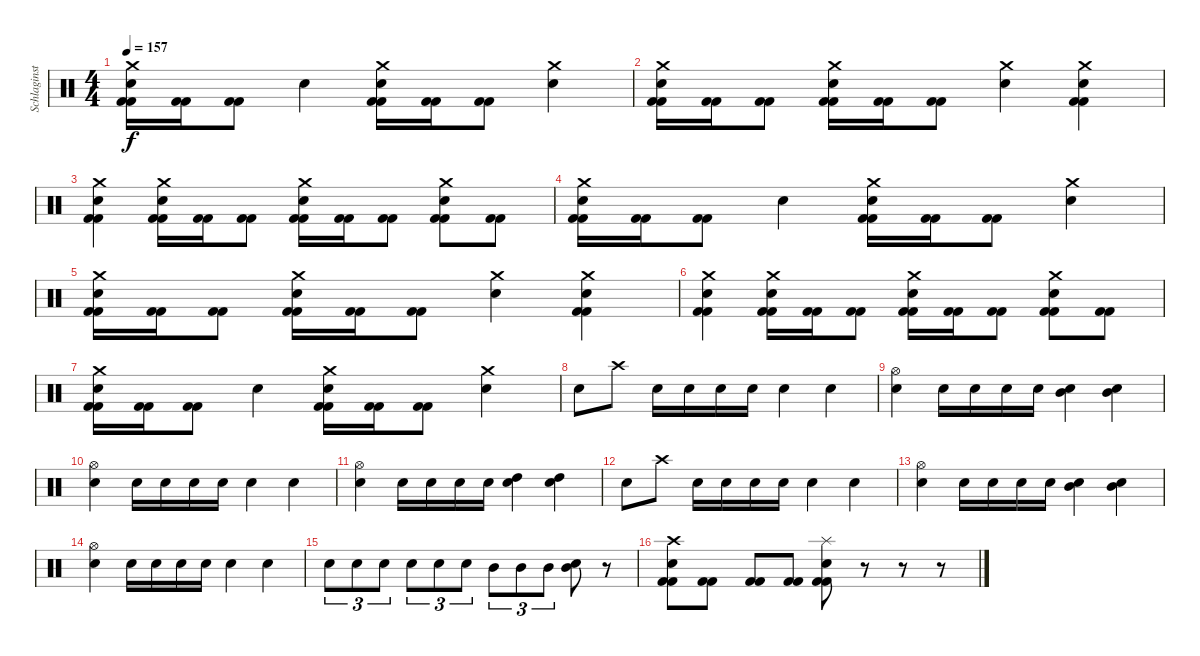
\track ("Schlaginstrumente - Auswahl" "Schlaginst") {instrument percussion}
\staff {score}
\articulation defaults
\ts (4 4)
\tempo 157
\clef neutral
\ks c
("Crash medium (hit)" "Electric Snare (hit)" "Kick (hit) 2" "Kick (hit) 2").16{dy f} ("Kick (hit) 2" "Kick (hit) 2").16 ("Kick (hit) 2" "Kick (hit) 2").8 "Electric Snare (hit)".4 ("Crash medium (hit)" "Electric Snare (hit)" "Kick (hit) 2" "Kick (hit) 2").16 ("Kick (hit) 2" "Kick (hit) 2").16 ("Kick (hit) 2" "Kick (hit) 2").8 ("Crash medium (hit)" "Electric Snare (hit)").4 |
("Crash medium (hit)" "Electric Snare (hit)" "Kick (hit) 2" "Kick (hit) 2").16 ("Kick (hit) 2" "Kick (hit) 2").16 ("Kick (hit) 2" "Kick (hit) 2").8 ("Crash medium (hit)" "Electric Snare (hit)" "Kick (hit) 2" "Kick (hit) 2").16 ("Kick (hit) 2" "Kick (hit) 2").16 ("Kick (hit) 2" "Kick (hit) 2").8 ("Crash medium (hit)" "Electric Snare (hit)").4 ("Crash medium (hit)" "Electric Snare (hit)" "Kick (hit) 2" "Kick (hit) 2").4 |
("Crash medium (hit)" "Electric Snare (hit)" "Kick (hit) 2" "Kick (hit) 2").4 ("Crash medium (hit)" "Electric Snare (hit)" "Kick (hit) 2" "Kick (hit) 2").16 ("Kick (hit) 2" "Kick (hit) 2").16 ("Kick (hit) 2" "Kick (hit) 2").8 ("Crash medium (hit)" "Electric Snare (hit)" "Kick (hit) 2" "Kick (hit) 2").16 ("Kick (hit) 2" "Kick (hit) 2").16 ("Kick (hit) 2" "Kick (hit) 2").8 ("Crash medium (hit)" "Electric Snare (hit)" "Kick (hit) 2" "Kick (hit) 2").8 ("Kick (hit) 2" "Kick (hit) 2").8 |
("Crash medium (hit)" "Electric Snare (hit)" "Kick (hit) 2" "Kick (hit) 2").16 ("Kick (hit) 2" "Kick (hit) 2").16 ("Kick (hit) 2" "Kick (hit) 2").8 "Electric Snare (hit)".4 ("Crash medium (hit)" "Electric Snare (hit)" "Kick (hit) 2" "Kick (hit) 2").16 ("Kick (hit) 2" "Kick (hit) 2").16 ("Kick (hit) 2" "Kick (hit) 2").8 ("Crash medium (hit)" "Electric Snare (hit)").4 |
("Crash medium (hit)" "Electric Snare (hit)" "Kick (hit) 2" "Kick (hit) 2").16 ("Kick (hit) 2" "Kick (hit) 2").16 ("Kick (hit) 2" "Kick (hit) 2").8 ("Crash medium (hit)" "Electric Snare (hit)" "Kick (hit) 2" "Kick (hit) 2").16 ("Kick (hit) 2" "Kick (hit) 2").16 ("Kick (hit) 2" "Kick (hit) 2").8 ("Crash medium (hit)" "Electric Snare (hit)").4 ("Crash medium (hit)" "Electric Snare (hit)" "Kick (hit) 2" "Kick (hit) 2").4 |
("Crash medium (hit)" "Electric Snare (hit)" "Kick (hit) 2" "Kick (hit) 2").4 ("Crash medium (hit)" "Electric Snare (hit)" "Kick (hit) 2" "Kick (hit) 2").16 ("Kick (hit) 2" "Kick (hit) 2").16 ("Kick (hit) 2" "Kick (hit) 2").8 ("Crash medium (hit)" "Electric Snare (hit)" "Kick (hit) 2" "Kick (hit) 2").16 ("Kick (hit) 2" "Kick (hit) 2").16 ("Kick (hit) 2" "Kick (hit) 2").8 ("Crash medium (hit)" "Electric Snare (hit)" "Kick (hit) 2" "Kick (hit) 2").8 ("Kick (hit) 2" "Kick (hit) 2").8 |
("Crash medium (hit)" "Electric Snare (hit)" "Kick (hit) 2" "Kick (hit) 2").16 ("Kick (hit) 2" "Kick (hit) 2").16 ("Kick (hit) 2" "Kick (hit) 2").8 "Electric Snare (hit)".4 ("Crash medium (hit)" "Electric Snare (hit)" "Kick (hit) 2" "Kick (hit) 2").16 ("Kick (hit) 2" "Kick (hit) 2").16 ("Kick (hit) 2" "Kick (hit) 2").8 ("Crash medium (hit)" "Electric Snare (hit)").4 |
"Electric Snare (hit)".8 "Crash high (hit)".8 "Electric Snare (hit)".16 "Electric Snare (hit)".16 "Electric Snare (hit)".16 "Electric Snare (hit)".16 "Electric Snare (hit)".4 "Electric Snare (hit)".4 |
("Hi-Hat (open)" "Electric Snare (hit)").4 "Electric Snare (hit)".16 "Electric Snare (hit)".16 "Electric Snare (hit)".16 "Electric Snare (hit)".16 ("Mid Tom (hit)" "Electric Snare (hit)").4 ("Mid Tom (hit)" "Electric Snare (hit)").4 |
("Hi-Hat (open)" "Electric Snare (hit)").4 "Electric Snare (hit)".16 "Electric Snare (hit)".16 "Electric Snare (hit)".16 "Electric Snare (hit)".16 "Electric Snare (hit)".4 "Electric Snare (hit)".4 |
("Hi-Hat (open)" "Electric Snare (hit)").4 "Electric Snare (hit)".16 "Electric Snare (hit)".16 "Electric Snare (hit)".16 "Electric Snare (hit)".16 ("High Tom (hit)" "Electric Snare (hit)").4 ("High Tom (hit)" "Electric Snare (hit)").4 |
"Electric Snare (hit)".8 "Crash high (hit)".8 "Electric Snare (hit)".16 "Electric Snare (hit)".16 "Electric Snare (hit)".16 "Electric Snare (hit)".16 "Electric Snare (hit)".4 "Electric Snare (hit)".4 |
("Hi-Hat (open)" "Electric Snare (hit)").4 "Electric Snare (hit)".16 "Electric Snare (hit)".16 "Electric Snare (hit)".16 "Electric Snare (hit)".16 ("Mid Tom (hit)" "Electric Snare (hit)").4 ("Mid Tom (hit)" "Electric Snare (hit)").4 |
("Hi-Hat (open)" "Electric Snare (hit)").4 "Electric Snare (hit)".16 "Electric Snare (hit)".16 "Electric Snare (hit)".16 "Electric Snare (hit)".16 "Electric Snare (hit)".4 "Electric Snare (hit)".4 |
"Electric Snare (hit)".8{tu (3 2)} "Electric Snare (hit)".8{tu (3 2)} "Electric Snare (hit)".8{tu (3 2)} "Electric Snare (hit)".8{tu (3 2)} "Electric Snare (hit)".8{tu (3 2)} "Electric Snare (hit)".8{tu (3 2)} "Mid Tom (hit)".8{tu (3 2)} "Mid Tom (hit)".8{tu (3 2)} "Mid Tom (hit)".8{tu (3 2)} ("Mid Tom (hit)" "Electric Snare (hit)").8 r.8 |
("Crash high (hit)" "Electric Snare (hit)" "Kick (hit) 2" "Kick (hit) 2").8 ("Kick (hit) 2" "Kick (hit) 2").8 ("Kick (hit) 2" "Kick (hit) 2").8 ("Kick (hit) 2" "Kick (hit) 2").8 ("Splash (hit)" "Electric Snare (hit)" "Kick (hit) 2" "Kick (hit) 2").8 r.8 r.8 r.8
